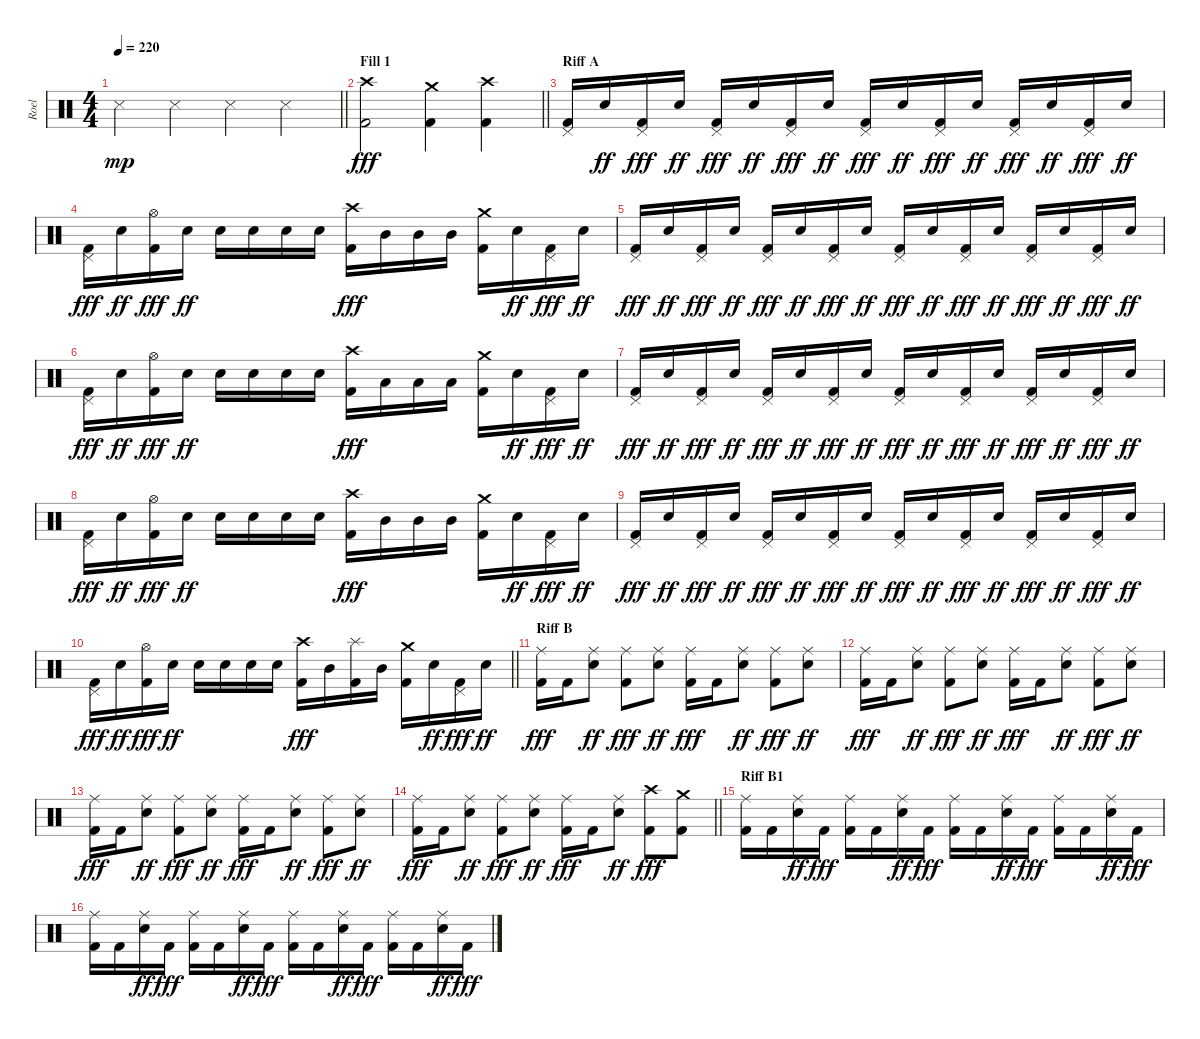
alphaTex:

\track ("Roel" "Roel") {instrument percussion}
\staff {score}
\articulation defaults
\ts (4 4)
\tempo 220
\clef neutral
\barLineRight lightlight
\ks c "Snare (side stick) 3".4{dy mp} "Snare (side stick) 3".4 "Snare (side stick) 3".4 "Snare (side stick) 3".4
|
\section ("" "Fill 1")
\barLineRight lightlight
("Crash high (hit)" "Kick (hit) 2").2{dy fff} ("Crash medium (hit)" "Kick (hit) 2").4 ("Crash high (hit)" "Kick (hit) 2").4 |
\section ("" "Riff A")
("Pedal Hi-Hat (hit)" "Kick (hit) 2").16 "Snare (hit) 2".16{dy ff} ("Pedal Hi-Hat (hit)" "Kick (hit) 2").16{dy fff} "Snare (hit) 2".16{dy ff} ("Pedal Hi-Hat (hit)" "Kick (hit) 2").16{dy fff} "Snare (hit) 2".16{dy ff} ("Pedal Hi-Hat (hit)" "Kick (hit) 2").16{dy fff} "Snare (hit) 2".16{dy ff} ("Pedal Hi-Hat (hit)" "Kick (hit) 2").16{dy fff} "Snare (hit) 2".16{dy ff} ("Pedal Hi-Hat (hit)" "Kick (hit) 2").16{dy fff} "Snare (hit) 2".16{dy ff} ("Pedal Hi-Hat (hit)" "Kick (hit) 2").16{dy fff} "Snare (hit) 2".16{dy ff} ("Pedal Hi-Hat (hit)" "Kick (hit) 2").16{dy fff} "Snare (hit) 2".16{dy ff} |
("Pedal Hi-Hat (hit)" "Kick (hit) 2").16{dy fff} "Snare (hit) 2".16{dy ff} ("Hi-Hat (open)" "Kick (hit) 2").16{dy fff} "Snare (hit) 2".16{dy ff} "Snare (hit) 2".16 "Snare (hit) 2".16 "Snare (hit) 2".16 "Snare (hit) 2".16 ("Crash high (hit)" "Kick (hit) 2").16{dy fff} "Mid Tom (hit)".16 "Mid Tom (hit)".16 "Mid Tom (hit)".16 ("Crash medium (hit)" "Kick (hit) 2").16 "Snare (hit) 2".16{dy ff} ("Pedal Hi-Hat (hit)" "Kick (hit) 2").16{dy fff} "Snare (hit) 2".16{dy ff} |
("Pedal Hi-Hat (hit)" "Kick (hit) 2").16{dy fff} "Snare (hit) 2".16{dy ff} ("Pedal Hi-Hat (hit)" "Kick (hit) 2").16{dy fff} "Snare (hit) 2".16{dy ff} ("Pedal Hi-Hat (hit)" "Kick (hit) 2").16{dy fff} "Snare (hit) 2".16{dy ff} ("Pedal Hi-Hat (hit)" "Kick (hit) 2").16{dy fff} "Snare (hit) 2".16{dy ff} ("Pedal Hi-Hat (hit)" "Kick (hit) 2").16{dy fff} "Snare (hit) 2".16{dy ff} ("Pedal Hi-Hat (hit)" "Kick (hit) 2").16{dy fff} "Snare (hit) 2".16{dy ff} ("Pedal Hi-Hat (hit)" "Kick (hit) 2").16{dy fff} "Snare (hit) 2".16{dy ff} ("Pedal Hi-Hat (hit)" "Kick (hit) 2").16{dy fff} "Snare (hit) 2".16{dy ff} |
("Pedal Hi-Hat (hit)" "Kick (hit) 2").16{dy fff} "Snare (hit) 2".16{dy ff} ("Hi-Hat (open)" "Kick (hit) 2").16{dy fff} "Snare (hit) 2".16{dy ff} "Snare (hit) 2".16 "Snare (hit) 2".16 "Snare (hit) 2".16 "Snare (hit) 2".16 ("Crash high (hit)" "Kick (hit) 2").16{dy fff} "Low Tom (hit)".16 "Low Tom (hit)".16 "Low Tom (hit)".16 ("Crash medium (hit)" "Kick (hit) 2").16 "Snare (hit) 2".16{dy ff} ("Pedal Hi-Hat (hit)" "Kick (hit) 2").16{dy fff} "Snare (hit) 2".16{dy ff} |
("Pedal Hi-Hat (hit)" "Kick (hit) 2").16{dy fff} "Snare (hit) 2".16{dy ff} ("Pedal Hi-Hat (hit)" "Kick (hit) 2").16{dy fff} "Snare (hit) 2".16{dy ff} ("Pedal Hi-Hat (hit)" "Kick (hit) 2").16{dy fff} "Snare (hit) 2".16{dy ff} ("Pedal Hi-Hat (hit)" "Kick (hit) 2").16{dy fff} "Snare (hit) 2".16{dy ff} ("Pedal Hi-Hat (hit)" "Kick (hit) 2").16{dy fff} "Snare (hit) 2".16{dy ff} ("Pedal Hi-Hat (hit)" "Kick (hit) 2").16{dy fff} "Snare (hit) 2".16{dy ff} ("Pedal Hi-Hat (hit)" "Kick (hit) 2").16{dy fff} "Snare (hit) 2".16{dy ff} ("Pedal Hi-Hat (hit)" "Kick (hit) 2").16{dy fff} "Snare (hit) 2".16{dy ff} |
("Pedal Hi-Hat (hit)" "Kick (hit) 2").16{dy fff} "Snare (hit) 2".16{dy ff} ("Hi-Hat (open)" "Kick (hit) 2").16{dy fff} "Snare (hit) 2".16{dy ff} "Snare (hit) 2".16 "Snare (hit) 2".16 "Snare (hit) 2".16 "Snare (hit) 2".16 ("Crash high (hit)" "Kick (hit) 2").16{dy fff} "Mid Tom (hit)".16 "Mid Tom (hit)".16 "Mid Tom (hit)".16 ("Crash medium (hit)" "Kick (hit) 2").16 "Snare (hit) 2".16{dy ff} ("Pedal Hi-Hat (hit)" "Kick (hit) 2").16{dy fff} "Snare (hit) 2".16{dy ff} |
("Pedal Hi-Hat (hit)" "Kick (hit) 2").16{dy fff} "Snare (hit) 2".16{dy ff} ("Pedal Hi-Hat (hit)" "Kick (hit) 2").16{dy fff} "Snare (hit) 2".16{dy ff} ("Pedal Hi-Hat (hit)" "Kick (hit) 2").16{dy fff} "Snare (hit) 2".16{dy ff} ("Pedal Hi-Hat (hit)" "Kick (hit) 2").16{dy fff} "Snare (hit) 2".16{dy ff} ("Pedal Hi-Hat (hit)" "Kick (hit) 2").16{dy fff} "Snare (hit) 2".16{dy ff} ("Pedal Hi-Hat (hit)" "Kick (hit) 2").16{dy fff} "Snare (hit) 2".16{dy ff} ("Pedal Hi-Hat (hit)" "Kick (hit) 2").16{dy fff} "Snare (hit) 2".16{dy ff} ("Pedal Hi-Hat (hit)" "Kick (hit) 2").16{dy fff} "Snare (hit) 2".16{dy ff} |
\barLineRight lightlight
("Pedal Hi-Hat (hit)" "Kick (hit) 2").16{dy fff} "Snare (hit) 2".16{dy ff} ("Hi-Hat (open)" "Kick (hit) 2").16{dy fff} "Snare (hit) 2".16{dy ff} "Snare (hit) 2".16 "Snare (hit) 2".16 "Snare (hit) 2".16 "Snare (hit) 2".16 ("Crash high (hit)" "Kick (hit) 2").16{dy fff} "Mid Tom (hit)".16 ("Splash (hit)" "Kick (hit) 2").16 "Mid Tom (hit)".16 ("Crash medium (hit)" "Kick (hit) 2").16 "Snare (hit) 2".16{dy ff} ("Pedal Hi-Hat (hit)" "Kick (hit) 2").16{dy fff} "Snare (hit) 2".16{dy ff} |
\section ("" "Riff B")
("Ride (middle)" "Kick (hit) 2").16{dy fff} "Kick (hit) 2".16 ("Ride (middle)" "Snare (hit) 2").8{dy ff} ("Ride (middle)" "Kick (hit) 2").8{dy fff} ("Ride (middle)" "Snare (hit) 2").8{dy ff} ("Ride (middle)" "Kick (hit) 2").16{dy fff} "Kick (hit) 2".16 ("Ride (middle)" "Snare (hit) 2").8{dy ff} ("Ride (middle)" "Kick (hit) 2").8{dy fff} ("Ride (middle)" "Snare (hit) 2").8{dy ff} |
("Ride (middle)" "Kick (hit) 2").16{dy fff} "Kick (hit) 2".16 ("Ride (middle)" "Snare (hit) 2").8{dy ff} ("Ride (middle)" "Kick (hit) 2").8{dy fff} ("Ride (middle)" "Snare (hit) 2").8{dy ff} ("Ride (middle)" "Kick (hit) 2").16{dy fff} "Kick (hit) 2".16 ("Ride (middle)" "Snare (hit) 2").8{dy ff} ("Ride (middle)" "Kick (hit) 2").8{dy fff} ("Ride (middle)" "Snare (hit) 2").8{dy ff} |
("Ride (middle)" "Kick (hit) 2").16{dy fff} "Kick (hit) 2".16 ("Ride (middle)" "Snare (hit) 2").8{dy ff} ("Ride (middle)" "Kick (hit) 2").8{dy fff} ("Ride (middle)" "Snare (hit) 2").8{dy ff} ("Ride (middle)" "Kick (hit) 2").16{dy fff} "Kick (hit) 2".16 ("Ride (middle)" "Snare (hit) 2").8{dy ff} ("Ride (middle)" "Kick (hit) 2").8{dy fff} ("Ride (middle)" "Snare (hit) 2").8{dy ff} |
\barLineRight lightlight
("Ride (middle)" "Kick (hit) 2").16{dy fff} "Kick (hit) 2".16 ("Ride (middle)" "Snare (hit) 2").8{dy ff} ("Ride (middle)" "Kick (hit) 2").8{dy fff} ("Ride (middle)" "Snare (hit) 2").8{dy ff} ("Ride (middle)" "Kick (hit) 2").16{dy fff} "Kick (hit) 2".16 ("Ride (middle)" "Snare (hit) 2").8{dy ff} ("Crash high (hit)" "Kick (hit) 2").8{dy fff} ("Crash medium (hit)" "Kick (hit) 2").8 |
\section ("" "Riff B1")
("Ride (middle)" "Kick (hit) 2").16 "Kick (hit) 2".16 ("Ride (middle)" "Snare (hit) 2").16{dy ff} "Kick (hit) 2".16{dy fff} ("Ride (middle)" "Kick (hit) 2").16 "Kick (hit) 2".16 ("Ride (middle)" "Snare (hit) 2").16{dy ff} "Kick (hit) 2".16{dy fff} ("Ride (middle)" "Kick (hit) 2").16 "Kick (hit) 2".16 ("Ride (middle)" "Snare (hit) 2").16{dy ff} "Kick (hit) 2".16{dy fff} ("Ride (middle)" "Kick (hit) 2").16 "Kick (hit) 2".16 ("Ride (middle)" "Snare (hit) 2").16{dy ff} "Kick (hit) 2".16{dy fff} |
("Ride (middle)" "Kick (hit) 2").16 "Kick (hit) 2".16 ("Ride (middle)" "Snare (hit) 2").16{dy ff} "Kick (hit) 2".16{dy fff} ("Ride (middle)" "Kick (hit) 2").16 "Kick (hit) 2".16 ("Ride (middle)" "Snare (hit) 2").16{dy ff} "Kick (hit) 2".16{dy fff} ("Ride (middle)" "Kick (hit) 2").16 "Kick (hit) 2".16 ("Ride (middle)" "Snare (hit) 2").16{dy ff} "Kick (hit) 2".16{dy fff} ("Ride (middle)" "Kick (hit) 2").16 "Kick (hit) 2".16 ("Ride (middle)" "Snare (hit) 2").16{dy ff} "Kick (hit) 2".16{dy fff}
